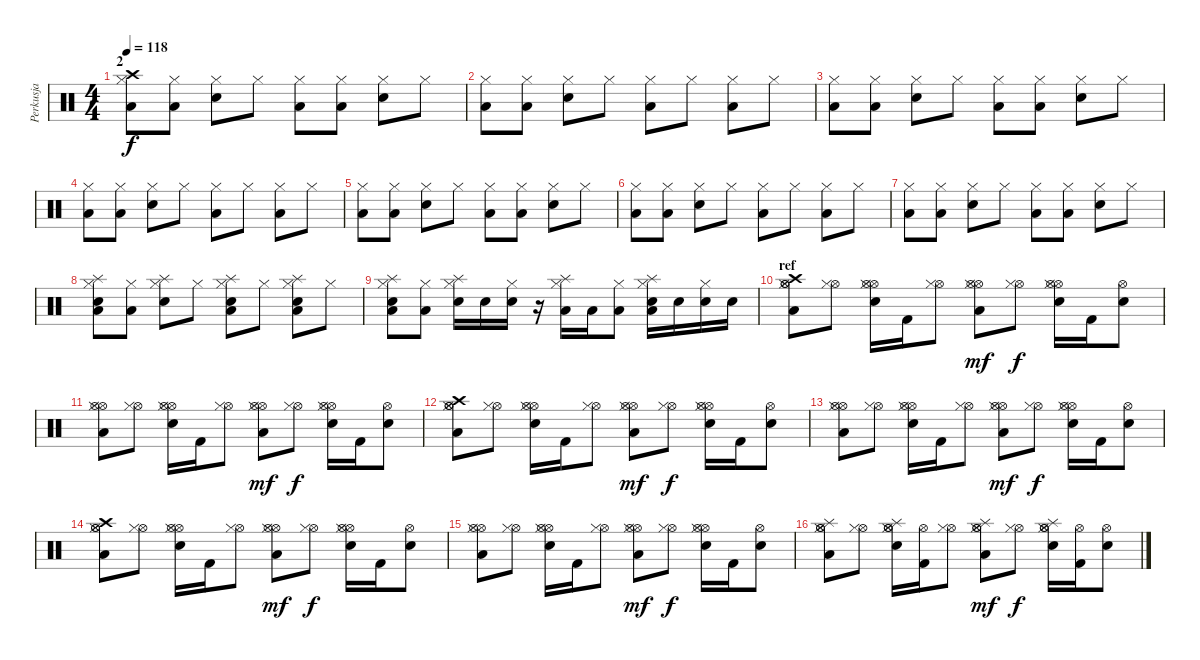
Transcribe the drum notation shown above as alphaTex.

\track ("Perkusja" "Perkusja") {instrument percussion}
\staff {score}
\articulation defaults
\ts (4 4)
\section ("" "2")
\tempo 118
\clef neutral
\ks c
("Hi-Hat (closed)" "Crash high (hit)" "Low Tom (hit)").8{dy f} ("Hi-Hat (closed)" "Low Tom (hit)").8 ("Hi-Hat (closed)" "Electric Snare (hit)").8 "Hi-Hat (closed)".8 ("Hi-Hat (closed)" "Low Tom (hit)").8 ("Hi-Hat (closed)" "Low Tom (hit)").8 ("Hi-Hat (closed)" "Electric Snare (hit)").8 "Hi-Hat (closed)".8 |
("Hi-Hat (closed)" "Low Tom (hit)").8 ("Hi-Hat (closed)" "Low Tom (hit)").8 ("Hi-Hat (closed)" "Electric Snare (hit)").8 "Hi-Hat (closed)".8 ("Hi-Hat (closed)" "Low Tom (hit)").8 "Hi-Hat (closed)".8 ("Hi-Hat (closed)" "Low Tom (hit)").8 "Hi-Hat (closed)".8 |
("Hi-Hat (closed)" "Low Tom (hit)").8 ("Hi-Hat (closed)" "Low Tom (hit)").8 ("Hi-Hat (closed)" "Electric Snare (hit)").8 "Hi-Hat (closed)".8 ("Hi-Hat (closed)" "Low Tom (hit)").8 ("Hi-Hat (closed)" "Low Tom (hit)").8 ("Hi-Hat (closed)" "Electric Snare (hit)").8 "Hi-Hat (closed)".8 |
("Hi-Hat (closed)" "Low Tom (hit)").8 ("Hi-Hat (closed)" "Low Tom (hit)").8 ("Hi-Hat (closed)" "Electric Snare (hit)").8 "Hi-Hat (closed)".8 ("Hi-Hat (closed)" "Low Tom (hit)").8 "Hi-Hat (closed)".8 ("Hi-Hat (closed)" "Low Tom (hit)").8 "Hi-Hat (closed)".8 |
("Hi-Hat (closed)" "Low Tom (hit)").8 ("Hi-Hat (closed)" "Low Tom (hit)").8 ("Hi-Hat (closed)" "Electric Snare (hit)").8 "Hi-Hat (closed)".8 ("Hi-Hat (closed)" "Low Tom (hit)").8 ("Hi-Hat (closed)" "Low Tom (hit)").8 ("Hi-Hat (closed)" "Electric Snare (hit)").8 "Hi-Hat (closed)".8 |
("Hi-Hat (closed)" "Low Tom (hit)").8 ("Hi-Hat (closed)" "Low Tom (hit)").8 ("Hi-Hat (closed)" "Electric Snare (hit)").8 "Hi-Hat (closed)".8 ("Hi-Hat (closed)" "Low Tom (hit)").8 "Hi-Hat (closed)".8 ("Hi-Hat (closed)" "Low Tom (hit)").8 "Hi-Hat (closed)".8 |
("Hi-Hat (closed)" "Low Tom (hit)").8 ("Hi-Hat (closed)" "Low Tom (hit)").8 ("Hi-Hat (closed)" "Electric Snare (hit)").8 "Hi-Hat (closed)".8 ("Hi-Hat (closed)" "Low Tom (hit)").8 ("Hi-Hat (closed)" "Low Tom (hit)").8 ("Hi-Hat (closed)" "Electric Snare (hit)").8 "Hi-Hat (closed)".8 |
("Hi-Hat (closed)" "Low Tom (hit)" "Electric Snare (hit)" "Splash (hit)").8 ("Hi-Hat (closed)" "Low Tom (hit)").8 ("Hi-Hat (closed)" "Electric Snare (hit)" "Splash (hit)").8 "Hi-Hat (closed)".8 ("Hi-Hat (closed)" "Low Tom (hit)" "Electric Snare (hit)" "Splash (hit)").8 "Hi-Hat (closed)".8 ("Hi-Hat (closed)" "Low Tom (hit)" "Electric Snare (hit)" "Splash (hit)").8 "Hi-Hat (closed)".8 |
("Hi-Hat (closed)" "Low Tom (hit)" "Electric Snare (hit)" "Splash (hit)").8 ("Hi-Hat (closed)" "Low Tom (hit)").8 ("Hi-Hat (closed)" "Electric Snare (hit)" "Splash (hit)").16 "Electric Snare (hit)".16 ("Hi-Hat (closed)" "Electric Snare (hit)").16 r.16 ("Hi-Hat (closed)" "Low Tom (hit)" "Splash (hit)").16 "Low Tom (hit)".16 ("Hi-Hat (closed)" "Low Tom (hit)").8 ("Hi-Hat (closed)" "Low Tom (hit)" "Electric Snare (hit)" "Splash (hit)").16 "Electric Snare (hit)".16 ("Hi-Hat (closed)" "Electric Snare (hit)").16 "Electric Snare (hit)".16 |
\section ("" "ref")
("Crash high (hit)" "Hi-Hat (open)" "Low Tom (hit)" "Hi-Hat (open)" "Hi-Hat (closed)").8 ("Hi-Hat (open)" "Hi-Hat (closed)").8 ("Hi-Hat (open)" "Electric Snare (hit)" "Hi-Hat (open)" "Hi-Hat (closed)").16 "Kick (hit) 2".16 ("Hi-Hat (open)" "Hi-Hat (closed)").8 ("Hi-Hat (open)" "Low Tom (hit)" "Hi-Hat (open)" "Hi-Hat (closed)").8{dy mf} ("Hi-Hat (open)" "Hi-Hat (closed)").8{dy f} ("Hi-Hat (open)" "Electric Snare (hit)" "Hi-Hat (open)" "Hi-Hat (closed)").16 "Kick (hit) 2".16 ("Hi-Hat (open)" "Snare (hit)").8 |
("Hi-Hat (open)" "Low Tom (hit)" "Hi-Hat (open)" "Hi-Hat (closed)").8 ("Hi-Hat (open)" "Hi-Hat (closed)").8 ("Hi-Hat (open)" "Electric Snare (hit)" "Hi-Hat (open)" "Hi-Hat (closed)").16 "Kick (hit) 2".16 ("Hi-Hat (open)" "Hi-Hat (closed)").8 ("Hi-Hat (open)" "Low Tom (hit)" "Hi-Hat (open)" "Hi-Hat (closed)").8{dy mf} ("Hi-Hat (open)" "Hi-Hat (closed)").8{dy f} ("Hi-Hat (open)" "Electric Snare (hit)" "Hi-Hat (open)" "Hi-Hat (closed)").16 "Kick (hit) 2".16 ("Hi-Hat (open)" "Snare (hit)").8 |
("Crash high (hit)" "Hi-Hat (open)" "Low Tom (hit)" "Hi-Hat (open)" "Hi-Hat (closed)").8 ("Hi-Hat (open)" "Hi-Hat (closed)").8 ("Hi-Hat (open)" "Electric Snare (hit)" "Hi-Hat (open)" "Hi-Hat (closed)").16 "Kick (hit) 2".16 ("Hi-Hat (open)" "Hi-Hat (closed)").8 ("Hi-Hat (open)" "Low Tom (hit)" "Hi-Hat (open)" "Hi-Hat (closed)").8{dy mf} ("Hi-Hat (open)" "Hi-Hat (closed)").8{dy f} ("Hi-Hat (open)" "Electric Snare (hit)" "Hi-Hat (open)" "Hi-Hat (closed)").16 "Kick (hit) 2".16 ("Hi-Hat (open)" "Snare (hit)").8 |
("Hi-Hat (open)" "Low Tom (hit)" "Hi-Hat (open)" "Hi-Hat (closed)").8 ("Hi-Hat (open)" "Hi-Hat (closed)").8 ("Hi-Hat (open)" "Electric Snare (hit)" "Hi-Hat (open)" "Hi-Hat (closed)").16 "Kick (hit) 2".16 ("Hi-Hat (open)" "Hi-Hat (closed)").8 ("Hi-Hat (open)" "Low Tom (hit)" "Hi-Hat (open)" "Hi-Hat (closed)").8{dy mf} ("Hi-Hat (open)" "Hi-Hat (closed)").8{dy f} ("Hi-Hat (open)" "Electric Snare (hit)" "Hi-Hat (open)" "Hi-Hat (closed)").16 "Kick (hit) 2".16 ("Hi-Hat (open)" "Snare (hit)").8 |
("Crash high (hit)" "Hi-Hat (open)" "Low Tom (hit)" "Hi-Hat (open)" "Hi-Hat (closed)").8 ("Hi-Hat (open)" "Hi-Hat (closed)").8 ("Hi-Hat (open)" "Electric Snare (hit)" "Hi-Hat (open)" "Hi-Hat (closed)").16 "Kick (hit) 2".16 ("Hi-Hat (open)" "Hi-Hat (closed)").8 ("Hi-Hat (open)" "Low Tom (hit)" "Hi-Hat (open)" "Hi-Hat (closed)").8{dy mf} ("Hi-Hat (open)" "Hi-Hat (closed)").8{dy f} ("Hi-Hat (open)" "Electric Snare (hit)" "Hi-Hat (open)" "Hi-Hat (closed)").16 "Kick (hit) 2".16 ("Hi-Hat (open)" "Snare (hit)").8 |
("Hi-Hat (open)" "Low Tom (hit)" "Hi-Hat (open)" "Hi-Hat (closed)").8 ("Hi-Hat (open)" "Hi-Hat (closed)").8 ("Hi-Hat (open)" "Electric Snare (hit)" "Hi-Hat (open)" "Hi-Hat (closed)").16 "Kick (hit) 2".16 ("Hi-Hat (open)" "Hi-Hat (closed)").8 ("Hi-Hat (open)" "Low Tom (hit)" "Hi-Hat (open)" "Hi-Hat (closed)").8{dy mf} ("Hi-Hat (open)" "Hi-Hat (closed)").8{dy f} ("Hi-Hat (open)" "Electric Snare (hit)" "Hi-Hat (open)" "Hi-Hat (closed)").16 "Kick (hit) 2".16 ("Hi-Hat (open)" "Snare (hit)").8 |
("Splash (hit)" "Hi-Hat (open)" "Low Tom (hit)" "Hi-Hat (open)" "Hi-Hat (closed)").8 ("Hi-Hat (open)" "Hi-Hat (closed)").8 ("Splash (hit)" "Hi-Hat (open)" "Electric Snare (hit)" "Hi-Hat (open)" "Hi-Hat (closed)").16 ("Hi-Hat (open)" "Kick (hit) 2").16 ("Hi-Hat (open)" "Hi-Hat (closed)").8 ("Splash (hit)" "Hi-Hat (open)" "Low Tom (hit)" "Hi-Hat (open)" "Hi-Hat (closed)").8{dy mf} ("Hi-Hat (open)" "Hi-Hat (closed)").8{dy f} ("Splash (hit)" "Hi-Hat (open)" "Electric Snare (hit)" "Hi-Hat (open)" "Hi-Hat (closed)").16 ("Hi-Hat (open)" "Kick (hit) 2").16 ("Hi-Hat (open)" "Snare (hit)").8
